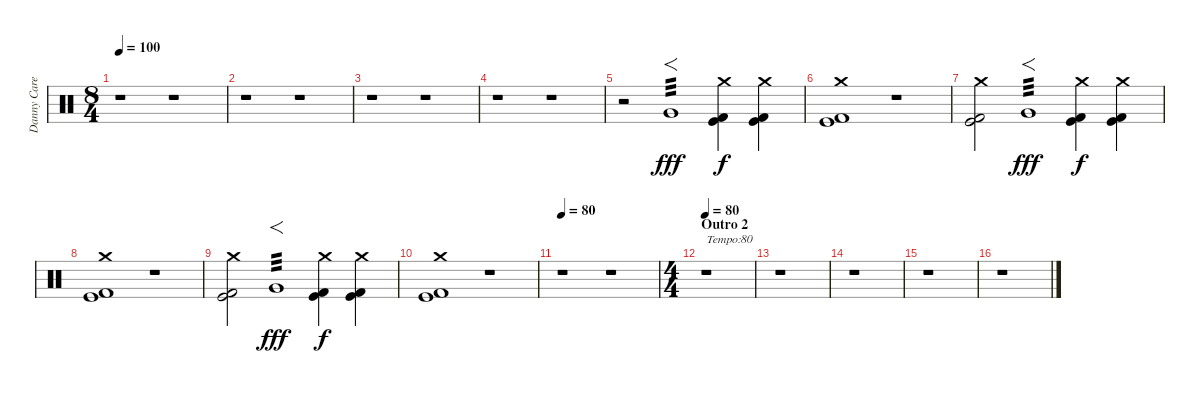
\track ("Danny Carey - Percussion" "Danny Care") {instrument percussion}
\staff {score}
\articulation defaults
\ts (8 4)
\tempo 100
\clef neutral
\ks c
r.1{dy mp} r.1 |
r.1 r.1 |
r.1 r.1 |
r.1 r.1 |
r.2 "Very Low Tom (hit)".1{f tp 3 dy fff} ("Crash medium (hit)" "Kick (hit)" "Kick (hit) 2").4{dy f} ("Crash medium (hit)" "Kick (hit)" "Kick (hit) 2").4 |
("Crash medium (hit)" "Kick (hit)" "Kick (hit) 2").1 r.1 |
("Crash medium (hit)" "Kick (hit)" "Kick (hit) 2").2 "Very Low Tom (hit)".1{f tp 3 dy fff} ("Crash medium (hit)" "Kick (hit)" "Kick (hit) 2").4{dy f} ("Crash medium (hit)" "Kick (hit)" "Kick (hit) 2").4 |
("Crash medium (hit)" "Kick (hit)" "Kick (hit) 2").1 r.1 |
("Crash medium (hit)" "Kick (hit)" "Kick (hit) 2").2 "Very Low Tom (hit)".1{f tp 3 dy fff} ("Crash medium (hit)" "Kick (hit)" "Kick (hit) 2").4{dy f} ("Crash medium (hit)" "Kick (hit)" "Kick (hit) 2").4 |
("Crash medium (hit)" "Kick (hit)" "Kick (hit) 2").1 r.1 |
\tempo 80
r.1 r.1 |
\ts (4 4)
\section ("" "Outro 2")
\tempo 80
r.1{txt "Tempo:80"} |
r.1 |
r.1 |
r.1 |
r.1
